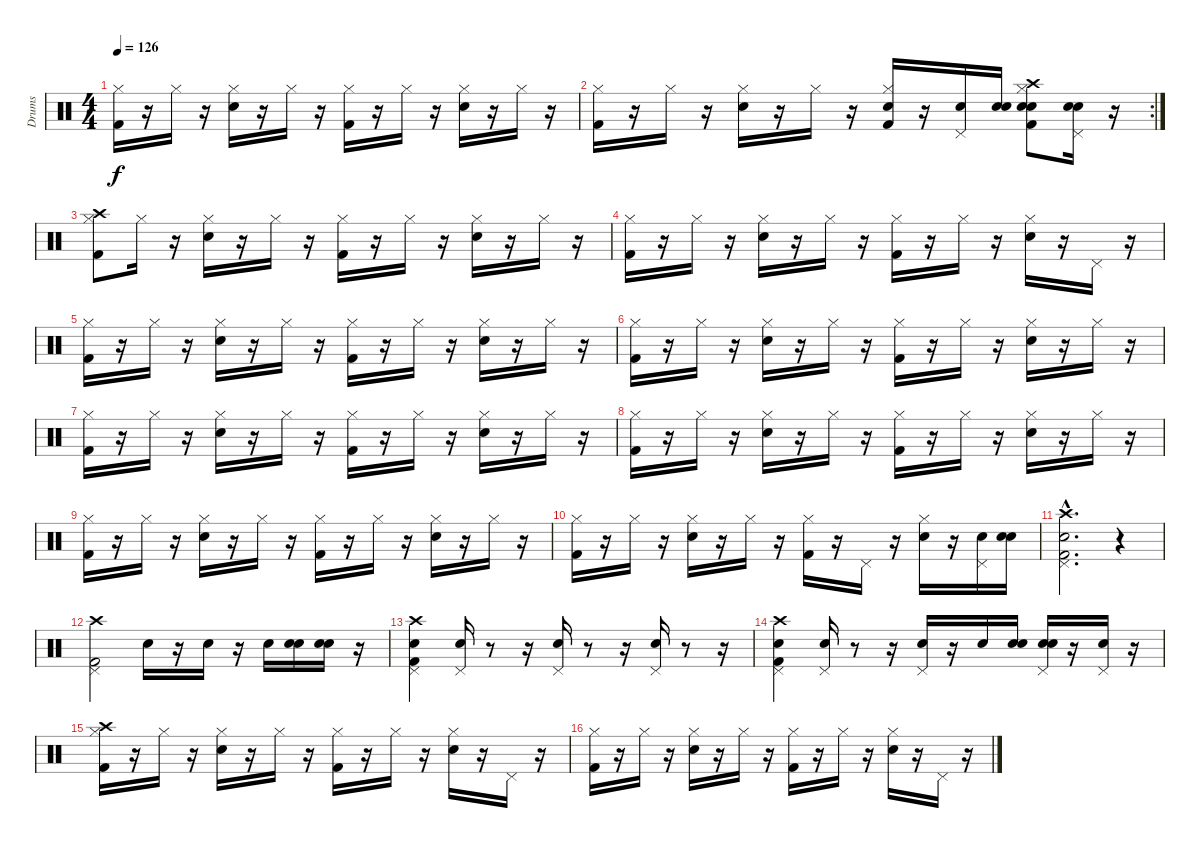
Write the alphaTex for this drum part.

\track ("Drums   " "Drums   ") {instrument percussion}
\staff {score}
\articulation defaults
\ts (4 4)
\tempo 126
\clef neutral
\ks c
("Kick (hit) 2" "Hi-Hat (closed)").16{dy f} r.16 "Hi-Hat (closed)".16 r.16 ("Snare (hit) 2" "Hi-Hat (closed)").16 r.16 "Hi-Hat (closed)".16 r.16 ("Kick (hit) 2" "Hi-Hat (closed)").16 r.16 "Hi-Hat (closed)".16 r.16 ("Snare (hit) 2" "Hi-Hat (closed)").16 r.16 "Hi-Hat (closed)".16 r.16 |
\rc 2
("Kick (hit) 2" "Hi-Hat (closed)").16 r.16 "Hi-Hat (closed)".16 r.16 ("Snare (hit) 2" "Hi-Hat (closed)").16 r.16 "Hi-Hat (closed)".16 r.16 ("Kick (hit) 2" "Snare (hit) 2" "Hi-Hat (closed)").16 r.16 ("Snare (hit) 2" "Pedal Hi-Hat (hit)").16 ("Snare (hit)" "Snare (hit) 2").16 ("Snare (hit)" "Kick (hit) 2" "Snare (hit) 2" "Hi-Hat (closed)" "Crash high (hit)").8 ("Snare (hit)" "Snare (hit) 2" "Pedal Hi-Hat (hit)").16 r.16 |
("Kick (hit) 2" "Hi-Hat (closed)" "Crash high (hit)").8 "Hi-Hat (closed)".16 r.16 ("Snare (hit) 2" "Hi-Hat (closed)").16 r.16 "Hi-Hat (closed)".16 r.16 ("Kick (hit) 2" "Hi-Hat (closed)").16 r.16 "Hi-Hat (closed)".16 r.16 ("Snare (hit) 2" "Hi-Hat (closed)").16 r.16 "Hi-Hat (closed)".16 r.16 |
("Kick (hit) 2" "Hi-Hat (closed)").16 r.16 "Hi-Hat (closed)".16 r.16 ("Snare (hit) 2" "Hi-Hat (closed)").16 r.16 "Hi-Hat (closed)".16 r.16 ("Kick (hit) 2" "Hi-Hat (closed)").16 r.16 "Hi-Hat (closed)".16 r.16 ("Snare (hit) 2" "Hi-Hat (closed)").16 r.16 "Pedal Hi-Hat (hit)".16 r.16 |
("Kick (hit) 2" "Hi-Hat (closed)").16 r.16 "Hi-Hat (closed)".16 r.16 ("Snare (hit) 2" "Hi-Hat (closed)").16 r.16 "Hi-Hat (closed)".16 r.16 ("Kick (hit) 2" "Hi-Hat (closed)").16 r.16 "Hi-Hat (closed)".16 r.16 ("Snare (hit) 2" "Hi-Hat (closed)").16 r.16 "Hi-Hat (closed)".16 r.16 |
("Kick (hit) 2" "Hi-Hat (closed)").16 r.16 "Hi-Hat (closed)".16 r.16 ("Snare (hit) 2" "Hi-Hat (closed)").16 r.16 "Hi-Hat (closed)".16 r.16 ("Kick (hit) 2" "Hi-Hat (closed)").16 r.16 "Hi-Hat (closed)".16 r.16 ("Snare (hit) 2" "Hi-Hat (closed)").16 r.16 "Hi-Hat (closed)".16 r.16 |
("Kick (hit) 2" "Hi-Hat (closed)").16 r.16 "Hi-Hat (closed)".16 r.16 ("Snare (hit) 2" "Hi-Hat (closed)").16 r.16 "Hi-Hat (closed)".16 r.16 ("Kick (hit) 2" "Hi-Hat (closed)").16 r.16 "Hi-Hat (closed)".16 r.16 ("Snare (hit) 2" "Hi-Hat (closed)").16 r.16 "Hi-Hat (closed)".16 r.16 |
("Kick (hit) 2" "Hi-Hat (closed)").16 r.16 "Hi-Hat (closed)".16 r.16 ("Snare (hit) 2" "Hi-Hat (closed)").16 r.16 "Hi-Hat (closed)".16 r.16 ("Kick (hit) 2" "Hi-Hat (closed)").16 r.16 "Hi-Hat (closed)".16 r.16 ("Snare (hit) 2" "Hi-Hat (closed)").16 r.16 "Hi-Hat (closed)".16 r.16 |
("Kick (hit) 2" "Hi-Hat (closed)").16 r.16 "Hi-Hat (closed)".16 r.16 ("Snare (hit) 2" "Hi-Hat (closed)").16 r.16 "Hi-Hat (closed)".16 r.16 ("Kick (hit) 2" "Hi-Hat (closed)").16 r.16 "Hi-Hat (closed)".16 r.16 ("Snare (hit) 2" "Hi-Hat (closed)").16 r.16 "Hi-Hat (closed)".16 r.16 |
("Kick (hit) 2" "Hi-Hat (closed)").16 r.16 "Hi-Hat (closed)".16 r.16 ("Snare (hit) 2" "Hi-Hat (closed)").16 r.16 "Hi-Hat (closed)".16 r.16 ("Kick (hit) 2" "Hi-Hat (closed)").16 r.16 "Pedal Hi-Hat (hit)".16 r.16 ("Snare (hit) 2" "Hi-Hat (closed)").16 r.16 ("Snare (hit) 2" "Pedal Hi-Hat (hit)").16 ("Snare (hit)" "Snare (hit) 2").16 |
("Snare (hit)"{hac} "Kick (hit) 2"{hac} "Pedal Hi-Hat (hit)"{hac} "Crash high (hit)"{hac}).2{d} r.4 |
("Kick (hit) 2" "Pedal Hi-Hat (hit)" "Crash high (hit)").2 "Snare (hit) 2".16 r.16 "Snare (hit) 2".16 r.16 "Snare (hit) 2".16 ("Snare (hit)" "Snare (hit) 2").16 ("Snare (hit)" "Snare (hit) 2").16 r.16 |
("Kick (hit) 2" "Snare (hit) 2" "Pedal Hi-Hat (hit)" "Crash high (hit)").4 ("Snare (hit) 2" "Pedal Hi-Hat (hit)").16 r.8 r.16 ("Snare (hit) 2" "Pedal Hi-Hat (hit)").16 r.8 r.16 ("Snare (hit) 2" "Pedal Hi-Hat (hit)").16 r.8 r.16 |
("Kick (hit) 2" "Snare (hit) 2" "Pedal Hi-Hat (hit)" "Crash high (hit)").4 ("Snare (hit) 2" "Pedal Hi-Hat (hit)").16 r.8 r.16 ("Snare (hit) 2" "Pedal Hi-Hat (hit)").16 r.16 "Snare (hit) 2".16 ("Snare (hit)" "Snare (hit) 2").16 ("Snare (hit)" "Snare (hit) 2" "Pedal Hi-Hat (hit)").16 r.16 ("Snare (hit) 2" "Pedal Hi-Hat (hit)").16 r.16 |
("Kick (hit) 2" "Hi-Hat (closed)" "Crash high (hit)").16 r.16 "Hi-Hat (closed)".16 r.16 ("Snare (hit) 2" "Hi-Hat (closed)").16 r.16 "Hi-Hat (closed)".16 r.16 ("Kick (hit) 2" "Hi-Hat (closed)").16 r.16 "Hi-Hat (closed)".16 r.16 ("Snare (hit) 2" "Hi-Hat (closed)").16 r.16 "Pedal Hi-Hat (hit)".16 r.16 |
("Kick (hit) 2" "Hi-Hat (closed)").16 r.16 "Hi-Hat (closed)".16 r.16 ("Snare (hit) 2" "Hi-Hat (closed)").16 r.16 "Hi-Hat (closed)".16 r.16 ("Kick (hit) 2" "Hi-Hat (closed)").16 r.16 "Hi-Hat (closed)".16 r.16 ("Snare (hit) 2" "Hi-Hat (closed)").16 r.16 "Pedal Hi-Hat (hit)".16 r.16
